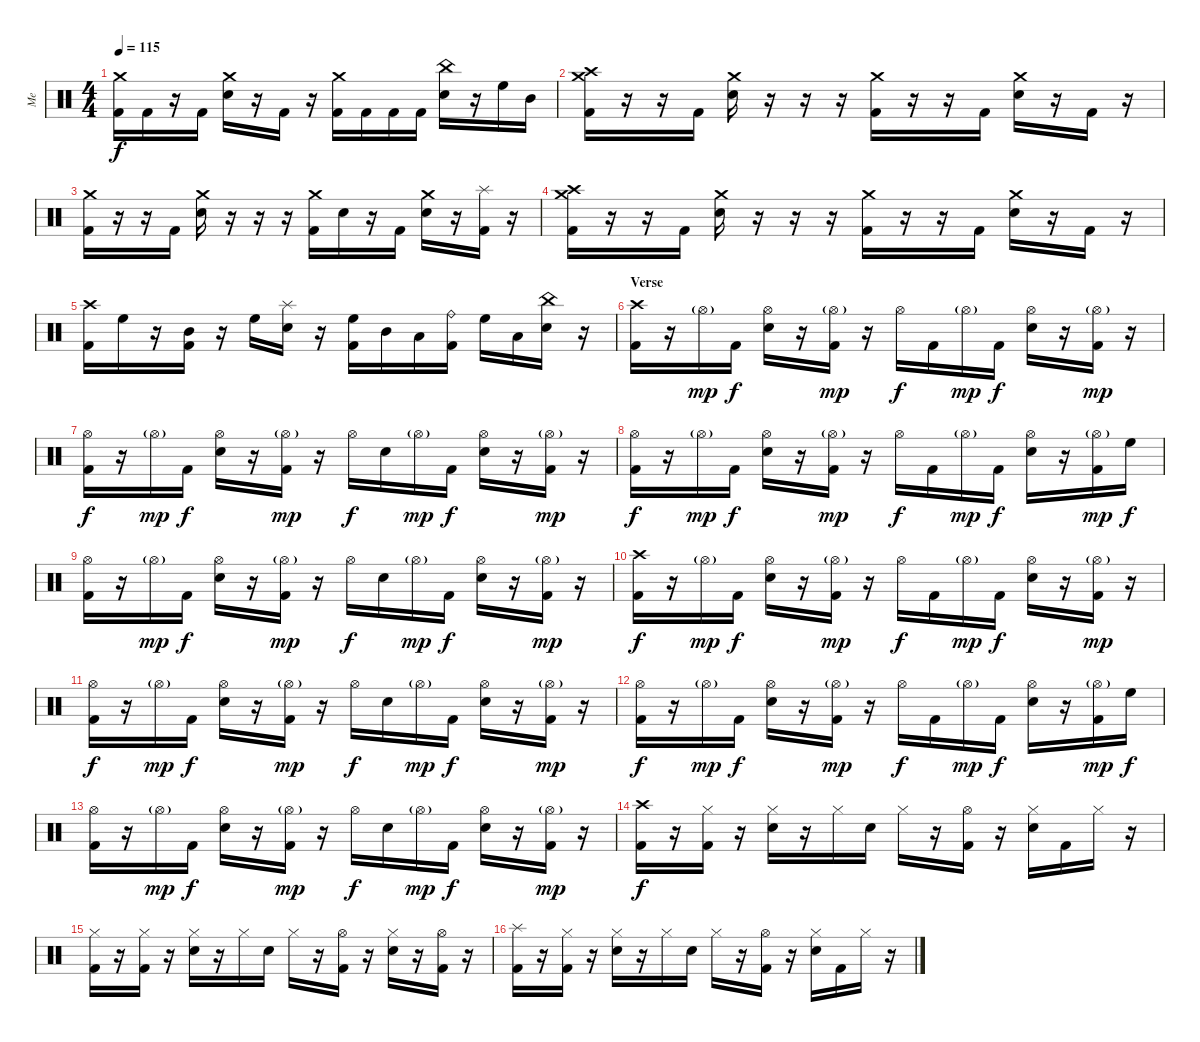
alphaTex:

\track ("Me" "Me") {instrument percussion}
\staff {score}
\articulation defaults
\ts (4 4)
\tempo 115
\clef neutral
\ks c
("Crash medium (hit)" "Kick (hit) 2").16{dy f} "Kick (hit) 2".16 r.16 "Kick (hit) 2".16 ("Crash medium (hit)" "Electric Snare (hit)").16 r.16 "Kick (hit) 2".16 r.16 ("Crash medium (hit)" "Kick (hit) 2").16 "Kick (hit) 2".16 "Kick (hit) 2".16 "Kick (hit) 2".16 ("China (hit)" "Electric Snare (hit)").16 r.16 "High Floor Tom (hit)".16 "Mid Tom (hit)".16 |
("Crash high (hit)" "Crash medium (hit)" "Kick (hit) 2").16 r.16 r.16 "Kick (hit) 2".16 ("Crash medium (hit)" "Electric Snare (hit)").16 r.16 r.16 r.16 ("Crash medium (hit)" "Kick (hit) 2").16 r.16 r.16 "Kick (hit) 2".16 ("Crash medium (hit)" "Electric Snare (hit)").16 r.16 "Kick (hit) 2".16 r.16 |
("Crash medium (hit)" "Kick (hit) 2").16 r.16 r.16 "Kick (hit) 2".16 ("Crash medium (hit)" "Electric Snare (hit)").16 r.16 r.16 r.16 ("Crash medium (hit)" "Kick (hit) 2").16 "Electric Snare (hit)".16 r.16 "Kick (hit) 2".16 ("Crash medium (hit)" "Electric Snare (hit)").16 r.16 ("Splash (hit)" "Kick (hit) 2").16 r.16 |
("Crash high (hit)" "Crash medium (hit)" "Kick (hit) 2").16 r.16 r.16 "Kick (hit) 2".16 ("Crash medium (hit)" "Electric Snare (hit)").16 r.16 r.16 r.16 ("Crash medium (hit)" "Kick (hit) 2").16 r.16 r.16 "Kick (hit) 2".16 ("Crash medium (hit)" "Electric Snare (hit)").16 r.16 "Kick (hit) 2".16 r.16 |
("Crash high (hit)" "Kick (hit) 2").16 "High Floor Tom (hit)".16 r.16 ("Mid Tom (hit)" "Kick (hit) 2").16 r.16 "High Floor Tom (hit)".16 ("Splash (hit)" "Electric Snare (hit)").16 r.16 ("High Floor Tom (hit)" "Kick (hit) 2").16 "Mid Tom (hit)".16 "Low Tom (hit)".16 ("Ride (bell)" "Kick (hit) 2").16 "High Floor Tom (hit)".16 "Low Tom (hit)".16 ("China (hit)" "Electric Snare (hit)").16 r.16 |
\section ("" "Verse")
("Crash high (hit)" "Kick (hit) 2").16 r.16 "Hi-Hat (open)"{g}.16{dy mp} "Kick (hit) 2".16{dy f} ("Hi-Hat (open)" "Electric Snare (hit)").16 r.16 ("Hi-Hat (open)"{g} "Kick (hit) 2").16{dy mp} r.16 "Hi-Hat (open)".16{dy f} "Kick (hit) 2".16 "Hi-Hat (open)"{g}.16{dy mp} "Kick (hit) 2".16{dy f} ("Hi-Hat (open)" "Electric Snare (hit)").16 r.16 ("Hi-Hat (open)"{g} "Kick (hit) 2").16{dy mp} r.16 |
("Hi-Hat (open)" "Kick (hit) 2").16{dy f} r.16 "Hi-Hat (open)"{g}.16{dy mp} "Kick (hit) 2".16{dy f} ("Hi-Hat (open)" "Electric Snare (hit)").16 r.16 ("Hi-Hat (open)"{g} "Kick (hit) 2").16{dy mp} r.16 "Hi-Hat (open)".16{dy f} "Electric Snare (hit)".16 "Hi-Hat (open)"{g}.16{dy mp} "Kick (hit) 2".16{dy f} ("Hi-Hat (open)" "Electric Snare (hit)").16 r.16 ("Hi-Hat (open)"{g} "Kick (hit) 2").16{dy mp} r.16 |
("Hi-Hat (open)" "Kick (hit) 2").16{dy f} r.16 "Hi-Hat (open)"{g}.16{dy mp} "Kick (hit) 2".16{dy f} ("Hi-Hat (open)" "Electric Snare (hit)").16 r.16 ("Hi-Hat (open)"{g} "Kick (hit) 2").16{dy mp} r.16 "Hi-Hat (open)".16{dy f} "Kick (hit) 2".16 "Hi-Hat (open)"{g}.16{dy mp} "Kick (hit) 2".16{dy f} ("Hi-Hat (open)" "Electric Snare (hit)").16 r.16 ("Hi-Hat (open)"{g} "Kick (hit) 2").16{dy mp} "High Floor Tom (hit)".16{dy f} |
("Hi-Hat (open)" "Kick (hit) 2").16 r.16 "Hi-Hat (open)"{g}.16{dy mp} "Kick (hit) 2".16{dy f} ("Hi-Hat (open)" "Electric Snare (hit)").16 r.16 ("Hi-Hat (open)"{g} "Kick (hit) 2").16{dy mp} r.16 "Hi-Hat (open)".16{dy f} "Electric Snare (hit)".16 "Hi-Hat (open)"{g}.16{dy mp} "Kick (hit) 2".16{dy f} ("Hi-Hat (open)" "Electric Snare (hit)").16 r.16 ("Hi-Hat (open)"{g} "Kick (hit) 2").16{dy mp} r.16 |
("Crash high (hit)" "Kick (hit) 2").16{dy f} r.16 "Hi-Hat (open)"{g}.16{dy mp} "Kick (hit) 2".16{dy f} ("Hi-Hat (open)" "Electric Snare (hit)").16 r.16 ("Hi-Hat (open)"{g} "Kick (hit) 2").16{dy mp} r.16 "Hi-Hat (open)".16{dy f} "Kick (hit) 2".16 "Hi-Hat (open)"{g}.16{dy mp} "Kick (hit) 2".16{dy f} ("Hi-Hat (open)" "Electric Snare (hit)").16 r.16 ("Hi-Hat (open)"{g} "Kick (hit) 2").16{dy mp} r.16 |
("Hi-Hat (open)" "Kick (hit) 2").16{dy f} r.16 "Hi-Hat (open)"{g}.16{dy mp} "Kick (hit) 2".16{dy f} ("Hi-Hat (open)" "Electric Snare (hit)").16 r.16 ("Hi-Hat (open)"{g} "Kick (hit) 2").16{dy mp} r.16 "Hi-Hat (open)".16{dy f} "Electric Snare (hit)".16 "Hi-Hat (open)"{g}.16{dy mp} "Kick (hit) 2".16{dy f} ("Hi-Hat (open)" "Electric Snare (hit)").16 r.16 ("Hi-Hat (open)"{g} "Kick (hit) 2").16{dy mp} r.16 |
("Hi-Hat (open)" "Kick (hit) 2").16{dy f} r.16 "Hi-Hat (open)"{g}.16{dy mp} "Kick (hit) 2".16{dy f} ("Hi-Hat (open)" "Electric Snare (hit)").16 r.16 ("Hi-Hat (open)"{g} "Kick (hit) 2").16{dy mp} r.16 "Hi-Hat (open)".16{dy f} "Kick (hit) 2".16 "Hi-Hat (open)"{g}.16{dy mp} "Kick (hit) 2".16{dy f} ("Hi-Hat (open)" "Electric Snare (hit)").16 r.16 ("Hi-Hat (open)"{g} "Kick (hit) 2").16{dy mp} "High Floor Tom (hit)".16{dy f} |
("Hi-Hat (open)" "Kick (hit) 2").16 r.16 "Hi-Hat (open)"{g}.16{dy mp} "Kick (hit) 2".16{dy f} ("Hi-Hat (open)" "Electric Snare (hit)").16 r.16 ("Hi-Hat (open)"{g} "Kick (hit) 2").16{dy mp} r.16 "Hi-Hat (open)".16{dy f} "Electric Snare (hit)".16 "Hi-Hat (open)"{g}.16{dy mp} "Kick (hit) 2".16{dy f} ("Hi-Hat (open)" "Electric Snare (hit)").16 r.16 ("Hi-Hat (open)"{g} "Kick (hit) 2").16{dy mp} r.16 |
("Crash high (hit)" "Kick (hit) 2").16{dy f} r.16 ("Hi-Hat (closed)" "Kick (hit) 2").16 r.16 ("Hi-Hat (closed)" "Electric Snare (hit)").16 r.16 "Hi-Hat (closed)".16 "Electric Snare (hit)".16 "Hi-Hat (closed)".16 r.16 ("Hi-Hat (open)" "Kick (hit) 2").16 r.16 ("Hi-Hat (closed)" "Electric Snare (hit)").16 "Kick (hit) 2".16 "Hi-Hat (closed)".16 r.16 |
("Hi-Hat (closed)" "Kick (hit) 2").16 r.16 ("Hi-Hat (closed)" "Kick (hit) 2").16 r.16 ("Hi-Hat (closed)" "Electric Snare (hit)").16 r.16 "Hi-Hat (closed)".16 "Electric Snare (hit)".16 "Hi-Hat (closed)".16 r.16 ("Hi-Hat (open)" "Kick (hit) 2").16 r.16 ("Hi-Hat (closed)" "Electric Snare (hit)").16 r.16 ("Hi-Hat (open)" "Kick (hit) 2").16 r.16 |
("Splash (hit)" "Kick (hit) 2").16 r.16 ("Hi-Hat (closed)" "Kick (hit) 2").16 r.16 ("Hi-Hat (closed)" "Electric Snare (hit)").16 r.16 "Hi-Hat (closed)".16 "Electric Snare (hit)".16 "Hi-Hat (closed)".16 r.16 ("Hi-Hat (open)" "Kick (hit) 2").16 r.16 ("Hi-Hat (closed)" "Electric Snare (hit)").16 "Kick (hit) 2".16 "Hi-Hat (closed)".16 r.16
